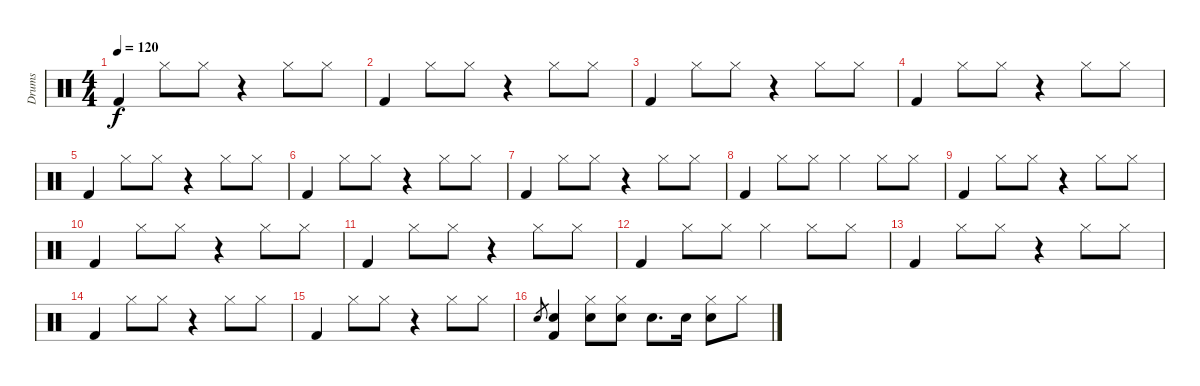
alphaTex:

\track ("Drums" "Drums") {instrument percussion}
\staff {score}
\articulation defaults
\ts (4 4)
\tempo 120
\clef neutral
\ks c "Kick (hit) 2".4{dy f} "Hi-Hat (closed)".8 "Hi-Hat (closed)".8
r.4 "Hi-Hat (closed)".8 "Hi-Hat (closed)".8 |
"Kick (hit) 2".4 "Hi-Hat (closed)".8 "Hi-Hat (closed)".8 r.4 "Hi-Hat (closed)".8 "Hi-Hat (closed)".8 |
"Kick (hit) 2".4 "Hi-Hat (closed)".8 "Hi-Hat (closed)".8 r.4 "Hi-Hat (closed)".8 "Hi-Hat (closed)".8 |
"Kick (hit) 2".4 "Hi-Hat (closed)".8 "Hi-Hat (closed)".8 r.4 "Hi-Hat (closed)".8 "Hi-Hat (closed)".8 |
"Kick (hit) 2".4 "Hi-Hat (closed)".8 "Hi-Hat (closed)".8 r.4 "Hi-Hat (closed)".8 "Hi-Hat (closed)".8 |
"Kick (hit) 2".4 "Hi-Hat (closed)".8 "Hi-Hat (closed)".8 r.4 "Hi-Hat (closed)".8 "Hi-Hat (closed)".8 |
"Kick (hit) 2".4 "Hi-Hat (closed)".8 "Hi-Hat (closed)".8 r.4 "Hi-Hat (closed)".8 "Hi-Hat (closed)".8 |
"Kick (hit) 2".4 "Hi-Hat (closed)".8 "Hi-Hat (closed)".8 "Hi-Hat (closed)".4 "Hi-Hat (closed)".8 "Hi-Hat (closed)".8 |
"Kick (hit) 2".4 "Hi-Hat (closed)".8 "Hi-Hat (closed)".8 r.4 "Hi-Hat (closed)".8 "Hi-Hat (closed)".8 |
"Kick (hit) 2".4 "Hi-Hat (closed)".8 "Hi-Hat (closed)".8 r.4 "Hi-Hat (closed)".8 "Hi-Hat (closed)".8 |
"Kick (hit) 2".4 "Hi-Hat (closed)".8 "Hi-Hat (closed)".8 r.4 "Hi-Hat (closed)".8 "Hi-Hat (closed)".8 |
"Kick (hit) 2".4 "Hi-Hat (closed)".8 "Hi-Hat (closed)".8 "Hi-Hat (closed)".4 "Hi-Hat (closed)".8 "Hi-Hat (closed)".8 |
"Kick (hit) 2".4 "Hi-Hat (closed)".8 "Hi-Hat (closed)".8 r.4 "Hi-Hat (closed)".8 "Hi-Hat (closed)".8 |
"Kick (hit) 2".4 "Hi-Hat (closed)".8 "Hi-Hat (closed)".8 r.4 "Hi-Hat (closed)".8 "Hi-Hat (closed)".8 |
"Kick (hit) 2".4 "Hi-Hat (closed)".8 "Hi-Hat (closed)".8 r.4 "Hi-Hat (closed)".8 "Hi-Hat (closed)".8 |
"Electric Snare (hit)".8{gr} ("Electric Snare (hit)" "Kick (hit) 2").4 ("Hi-Hat (closed)" "Electric Snare (hit)").8 ("Hi-Hat (closed)" "Electric Snare (hit)").8 "Electric Snare (hit)".8{d} "Electric Snare (hit)".16 ("Hi-Hat (closed)" "Electric Snare (hit)").8 "Hi-Hat (closed)".8
